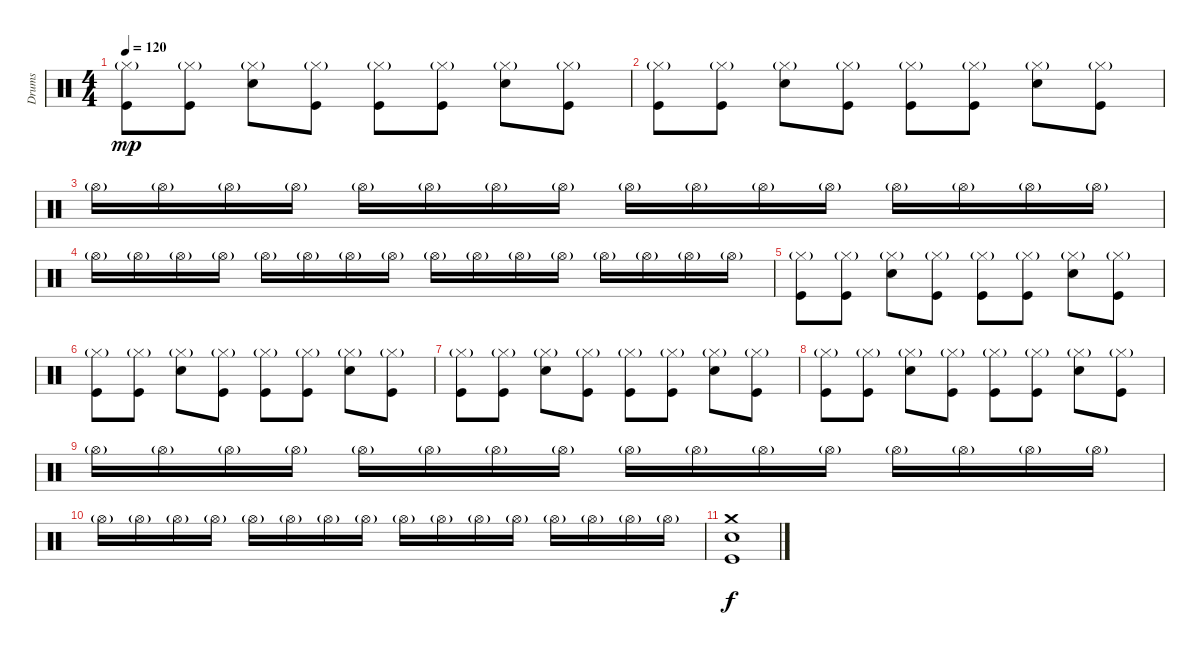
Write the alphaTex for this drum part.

\track ("Drums" "Drums") {instrument percussion}
\staff {score}
\articulation defaults
\ts (4 4)
\tempo 120
\clef neutral
\ks c
("Hi-Hat (closed)"{g} "Kick (hit)").8{dy mp} ("Hi-Hat (closed)"{g} "Kick (hit)").8 ("Hi-Hat (closed)"{g} "Electric Snare (hit)").8 ("Hi-Hat (closed)"{g} "Kick (hit)").8 ("Hi-Hat (closed)"{g} "Kick (hit)").8 ("Hi-Hat (closed)"{g} "Kick (hit)").8 ("Hi-Hat (closed)"{g} "Electric Snare (hit)").8 ("Hi-Hat (closed)"{g} "Kick (hit)").8 |
("Hi-Hat (closed)"{g} "Kick (hit)").8 ("Hi-Hat (closed)"{g} "Kick (hit)").8 ("Hi-Hat (closed)"{g} "Electric Snare (hit)").8 ("Hi-Hat (closed)"{g} "Kick (hit)").8 ("Hi-Hat (closed)"{g} "Kick (hit)").8 ("Hi-Hat (closed)"{g} "Kick (hit)").8 ("Hi-Hat (closed)"{g} "Electric Snare (hit)").8 ("Hi-Hat (closed)"{g} "Kick (hit)").8 |
"Hi-Hat (open)"{g}.16 "Hi-Hat (open)"{g}.16 "Hi-Hat (open)"{g}.16 "Hi-Hat (open)"{g}.16 "Hi-Hat (open)"{g}.16 "Hi-Hat (open)"{g}.16 "Hi-Hat (open)"{g}.16 "Hi-Hat (open)"{g}.16 "Hi-Hat (open)"{g}.16 "Hi-Hat (open)"{g}.16 "Hi-Hat (open)"{g}.16 "Hi-Hat (open)"{g}.16 "Hi-Hat (open)"{g}.16 "Hi-Hat (open)"{g}.16 "Hi-Hat (open)"{g}.16 "Hi-Hat (open)"{g}.16 |
"Hi-Hat (open)"{g}.16 "Hi-Hat (open)"{g}.16 "Hi-Hat (open)"{g}.16 "Hi-Hat (open)"{g}.16 "Hi-Hat (open)"{g}.16 "Hi-Hat (open)"{g}.16 "Hi-Hat (open)"{g}.16 "Hi-Hat (open)"{g}.16 "Hi-Hat (open)"{g}.16 "Hi-Hat (open)"{g}.16 "Hi-Hat (open)"{g}.16 "Hi-Hat (open)"{g}.16 "Hi-Hat (open)"{g}.16 "Hi-Hat (open)"{g}.16 "Hi-Hat (open)"{g}.16 "Hi-Hat (open)"{g}.16 |
("Hi-Hat (closed)"{g} "Kick (hit)").8 ("Hi-Hat (closed)"{g} "Kick (hit)").8 ("Hi-Hat (closed)"{g} "Electric Snare (hit)").8 ("Hi-Hat (closed)"{g} "Kick (hit)").8 ("Hi-Hat (closed)"{g} "Kick (hit)").8 ("Hi-Hat (closed)"{g} "Kick (hit)").8 ("Hi-Hat (closed)"{g} "Electric Snare (hit)").8 ("Hi-Hat (closed)"{g} "Kick (hit)").8 |
("Hi-Hat (closed)"{g} "Kick (hit)").8 ("Hi-Hat (closed)"{g} "Kick (hit)").8 ("Hi-Hat (closed)"{g} "Electric Snare (hit)").8 ("Hi-Hat (closed)"{g} "Kick (hit)").8 ("Hi-Hat (closed)"{g} "Kick (hit)").8 ("Hi-Hat (closed)"{g} "Kick (hit)").8 ("Hi-Hat (closed)"{g} "Electric Snare (hit)").8 ("Hi-Hat (closed)"{g} "Kick (hit)").8 |
("Hi-Hat (closed)"{g} "Kick (hit)").8 ("Hi-Hat (closed)"{g} "Kick (hit)").8 ("Hi-Hat (closed)"{g} "Electric Snare (hit)").8 ("Hi-Hat (closed)"{g} "Kick (hit)").8 ("Hi-Hat (closed)"{g} "Kick (hit)").8 ("Hi-Hat (closed)"{g} "Kick (hit)").8 ("Hi-Hat (closed)"{g} "Electric Snare (hit)").8 ("Hi-Hat (closed)"{g} "Kick (hit)").8 |
("Hi-Hat (closed)"{g} "Kick (hit)").8 ("Hi-Hat (closed)"{g} "Kick (hit)").8 ("Hi-Hat (closed)"{g} "Electric Snare (hit)").8 ("Hi-Hat (closed)"{g} "Kick (hit)").8 ("Hi-Hat (closed)"{g} "Kick (hit)").8 ("Hi-Hat (closed)"{g} "Kick (hit)").8 ("Hi-Hat (closed)"{g} "Electric Snare (hit)").8 ("Hi-Hat (closed)"{g} "Kick (hit)").8 |
"Hi-Hat (open)"{g}.16 "Hi-Hat (open)"{g}.16 "Hi-Hat (open)"{g}.16 "Hi-Hat (open)"{g}.16 "Hi-Hat (open)"{g}.16 "Hi-Hat (open)"{g}.16 "Hi-Hat (open)"{g}.16 "Hi-Hat (open)"{g}.16 "Hi-Hat (open)"{g}.16 "Hi-Hat (open)"{g}.16 "Hi-Hat (open)"{g}.16 "Hi-Hat (open)"{g}.16 "Hi-Hat (open)"{g}.16 "Hi-Hat (open)"{g}.16 "Hi-Hat (open)"{g}.16 "Hi-Hat (open)"{g}.16 |
"Hi-Hat (open)"{g}.16 "Hi-Hat (open)"{g}.16 "Hi-Hat (open)"{g}.16 "Hi-Hat (open)"{g}.16 "Hi-Hat (open)"{g}.16 "Hi-Hat (open)"{g}.16 "Hi-Hat (open)"{g}.16 "Hi-Hat (open)"{g}.16 "Hi-Hat (open)"{g}.16 "Hi-Hat (open)"{g}.16 "Hi-Hat (open)"{g}.16 "Hi-Hat (open)"{g}.16 "Hi-Hat (open)"{g}.16 "Hi-Hat (open)"{g}.16 "Hi-Hat (open)"{g}.16 "Hi-Hat (open)"{g}.16 |
("Crash medium (hit)" "Electric Snare (hit)" "Kick (hit)").1{dy f}
